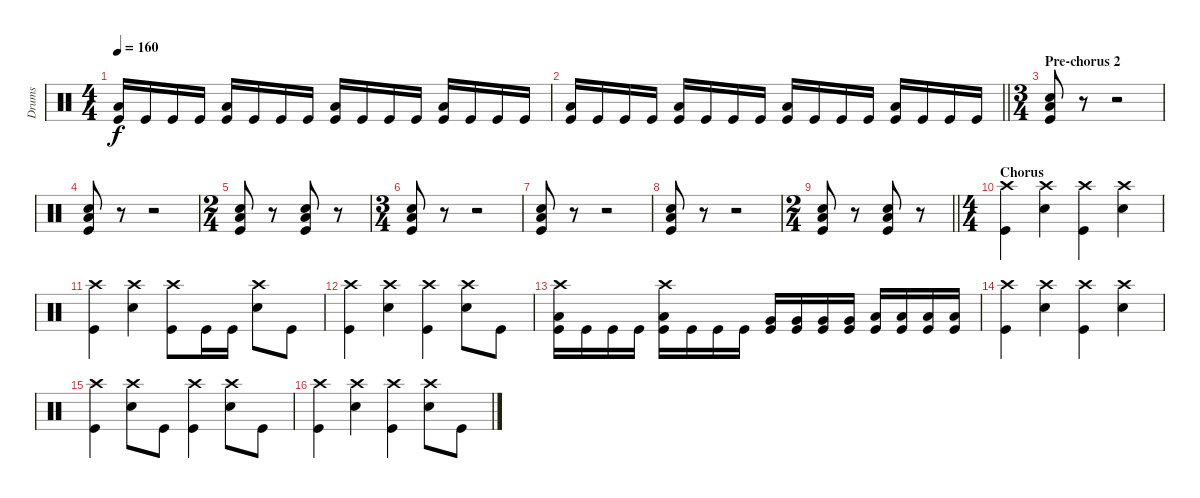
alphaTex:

\track ("Drums" "Drums") {instrument percussion}
\staff {score}
\articulation defaults
\ts (4 4)
\tempo 160
\clef neutral
\ks c
("Kick (hit)" "Low Floor Tom (hit)").16{dy f} "Kick (hit)".16 "Kick (hit)".16 "Kick (hit)".16 ("Kick (hit)" "Low Floor Tom (hit)").16 "Kick (hit)".16 "Kick (hit)".16 "Kick (hit)".16 ("Kick (hit)" "Low Floor Tom (hit)").16 "Kick (hit)".16 "Kick (hit)".16 "Kick (hit)".16 ("Kick (hit)" "Low Floor Tom (hit)").16 "Kick (hit)".16 "Kick (hit)".16 "Kick (hit)".16 |
\barLineRight lightlight
("Kick (hit)" "Low Floor Tom (hit)").16 "Kick (hit)".16 "Kick (hit)".16 "Kick (hit)".16 ("Kick (hit)" "Low Floor Tom (hit)").16 "Kick (hit)".16 "Kick (hit)".16 "Kick (hit)".16 ("Kick (hit)" "Low Floor Tom (hit)").16 "Kick (hit)".16 "Kick (hit)".16 "Kick (hit)".16 ("Kick (hit)" "Low Floor Tom (hit)").16 "Kick (hit)".16 "Kick (hit)".16 "Kick (hit)".16 |
\ts (3 4)
\section ("" "Pre-chorus 2")
("Snare (hit) 2" "Kick (hit)" "Low Floor Tom (hit)").8 r.8 r.2 |
("Snare (hit) 2" "Kick (hit)" "Low Floor Tom (hit)").8 r.8 r.2 |
\ts (2 4)
("Snare (hit) 2" "Kick (hit)" "Low Floor Tom (hit)").8 r.8 ("Snare (hit) 2" "Kick (hit)" "Low Floor Tom (hit)").8 r.8 |
\ts (3 4)
("Snare (hit) 2" "Kick (hit)" "Low Floor Tom (hit)").8 r.8 r.2 |
("Snare (hit) 2" "Kick (hit)" "Low Floor Tom (hit)").8 r.8 r.2 |
("Snare (hit) 2" "Kick (hit)" "Low Floor Tom (hit)").8 r.8 r.2 |
\ts (2 4)
\barLineRight lightlight
("Snare (hit) 2" "Kick (hit)" "Low Floor Tom (hit)").8 r.8 ("Snare (hit) 2" "Kick (hit)" "Low Floor Tom (hit)").8 r.8 |
\ts (4 4)
\section ("" "Chorus")
("Kick (hit)" "Crash high (hit)").4 ("Snare (hit) 2" "Crash high (hit)").4 ("Kick (hit)" "Crash high (hit)").4 ("Snare (hit) 2" "Crash high (hit)").4 |
("Kick (hit)" "Crash high (hit)").4 ("Snare (hit) 2" "Crash high (hit)").4 ("Kick (hit)" "Crash high (hit)").8 "Kick (hit)".16 "Kick (hit)".16 ("Snare (hit) 2" "Crash high (hit)").8 "Kick (hit)".8 |
("Kick (hit)" "Crash high (hit)").4 ("Snare (hit) 2" "Crash high (hit)").4 ("Kick (hit)" "Crash high (hit)").4 ("Snare (hit) 2" "Crash high (hit)").8 "Kick (hit)".8 |
("Kick (hit)" "Low Floor Tom (hit)" "Crash high (hit)").16 "Kick (hit)".16 "Kick (hit)".16 "Kick (hit)".16 ("Kick (hit)" "Low Floor Tom (hit)" "Crash high (hit)").16 "Kick (hit)".16 "Kick (hit)".16 "Kick (hit)".16 ("Kick (hit)" "Very Low Tom (hit)").16 ("Kick (hit)" "Very Low Tom (hit)").16 ("Very Low Tom (hit)" "Kick (hit)").16 ("Kick (hit)" "Very Low Tom (hit)").16 ("Kick (hit)" "Low Floor Tom (hit)").16 ("Kick (hit)" "Low Floor Tom (hit)").16 ("Low Floor Tom (hit)" "Kick (hit)").16 ("Kick (hit)" "Low Floor Tom (hit)").16 |
("Kick (hit)" "Crash high (hit)").4 ("Snare (hit) 2" "Crash high (hit)").4 ("Kick (hit)" "Crash high (hit)").4 ("Snare (hit) 2" "Crash high (hit)").4 |
("Kick (hit)" "Crash high (hit)").4 ("Snare (hit) 2" "Crash high (hit)").8 "Kick (hit)".8 ("Kick (hit)" "Crash high (hit)").4 ("Snare (hit) 2" "Crash high (hit)").8 "Kick (hit)".8 |
("Kick (hit)" "Crash high (hit)").4 ("Snare (hit) 2" "Crash high (hit)").4 ("Kick (hit)" "Crash high (hit)").4 ("Snare (hit) 2" "Crash high (hit)").8 "Kick (hit)".8
